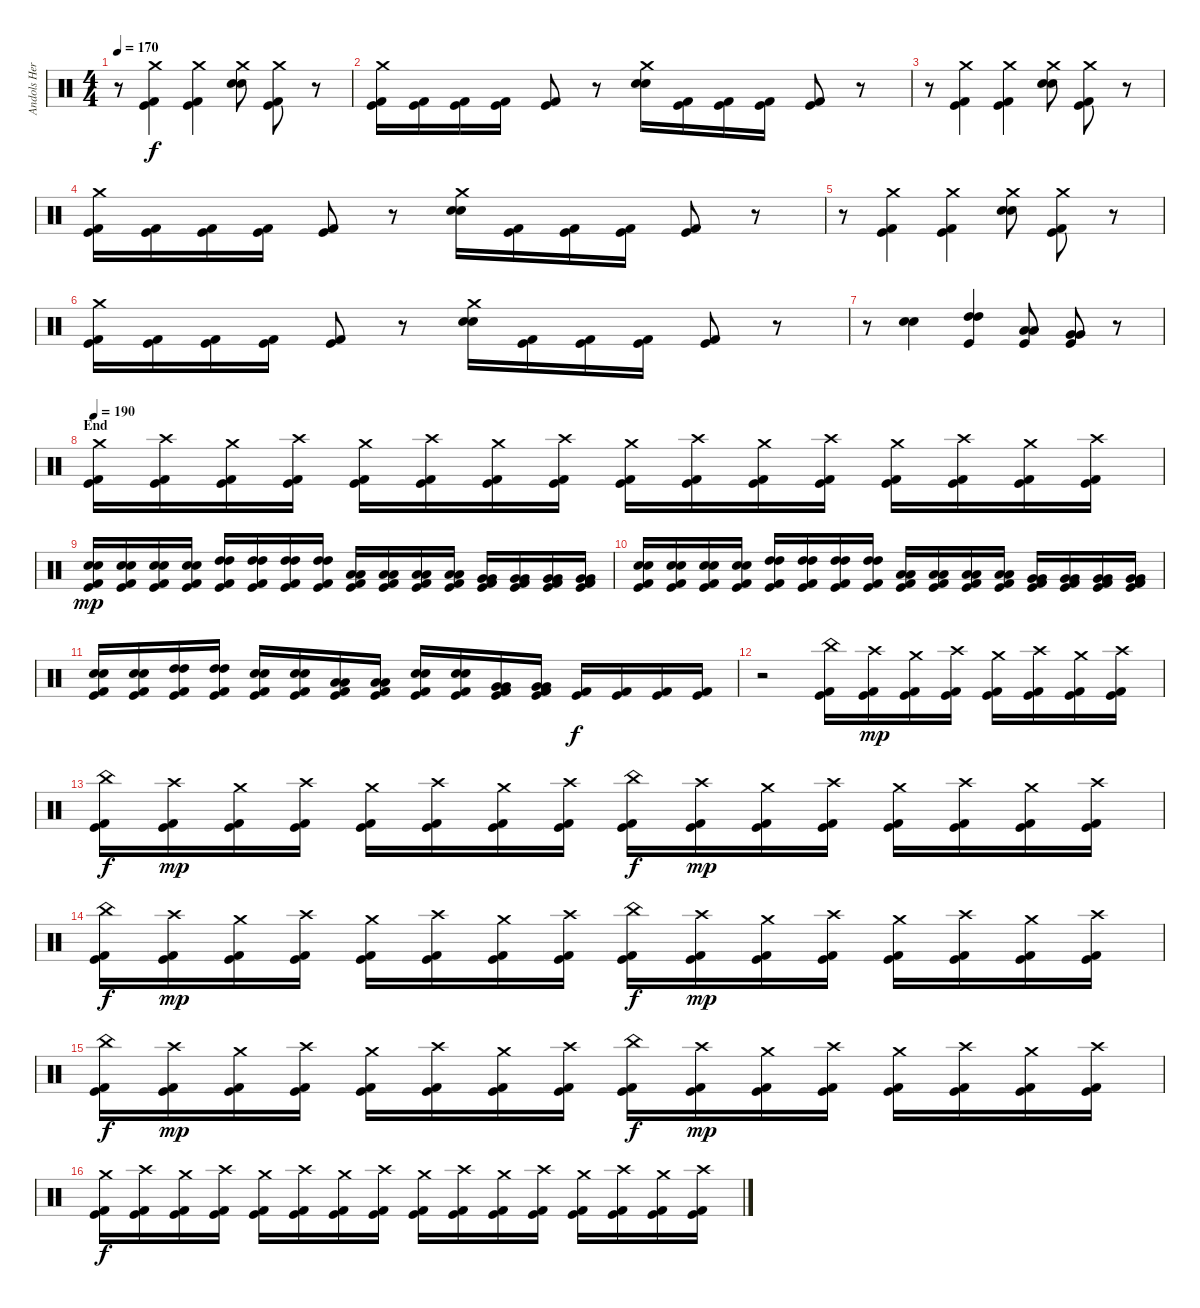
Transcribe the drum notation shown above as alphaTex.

\track ("Andols Herrick" "Andols Her") {instrument percussion}
\staff {score}
\articulation defaults
\ts (4 4)
\tempo 170
\clef neutral
\ks c
r.8{dy f} ("Crash medium (hit)" "Kick (hit) 2" "Kick (hit)").4 ("Crash medium (hit)" "Kick (hit) 2" "Kick (hit)").4 ("Crash medium (hit)" "Electric Snare (hit)" "Snare (hit) 2").8 ("Crash medium (hit)" "Kick (hit) 2" "Kick (hit)").8 r.8 |
("Crash medium (hit)" "Kick (hit) 2" "Kick (hit)").16 ("Kick (hit) 2" "Kick (hit)").16 ("Kick (hit) 2" "Kick (hit)").16 ("Kick (hit) 2" "Kick (hit)").16 ("Kick (hit) 2" "Kick (hit)").8 r.8 ("Crash medium (hit)" "Electric Snare (hit)" "Snare (hit) 2").16 ("Kick (hit) 2" "Kick (hit)").16 ("Kick (hit) 2" "Kick (hit)").16 ("Kick (hit) 2" "Kick (hit)").16 ("Kick (hit) 2" "Kick (hit)").8 r.8 |
r.8 ("Crash medium (hit)" "Kick (hit) 2" "Kick (hit)").4 ("Crash medium (hit)" "Kick (hit) 2" "Kick (hit)").4 ("Crash medium (hit)" "Electric Snare (hit)" "Snare (hit) 2").8 ("Crash medium (hit)" "Kick (hit) 2" "Kick (hit)").8 r.8 |
("Crash medium (hit)" "Kick (hit) 2" "Kick (hit)").16 ("Kick (hit) 2" "Kick (hit)").16 ("Kick (hit) 2" "Kick (hit)").16 ("Kick (hit) 2" "Kick (hit)").16 ("Kick (hit) 2" "Kick (hit)").8 r.8 ("Crash medium (hit)" "Electric Snare (hit)" "Snare (hit) 2").16 ("Kick (hit) 2" "Kick (hit)").16 ("Kick (hit) 2" "Kick (hit)").16 ("Kick (hit) 2" "Kick (hit)").16 ("Kick (hit) 2" "Kick (hit)").8 r.8 |
r.8 ("Crash medium (hit)" "Kick (hit) 2" "Kick (hit)").4 ("Crash medium (hit)" "Kick (hit) 2" "Kick (hit)").4 ("Crash medium (hit)" "Electric Snare (hit)" "Snare (hit) 2").8 ("Crash medium (hit)" "Kick (hit) 2" "Kick (hit)").8 r.8 |
("Crash medium (hit)" "Kick (hit) 2" "Kick (hit)").16 ("Kick (hit) 2" "Kick (hit)").16 ("Kick (hit) 2" "Kick (hit)").16 ("Kick (hit) 2" "Kick (hit)").16 ("Kick (hit) 2" "Kick (hit)").8 r.8 ("Crash medium (hit)" "Electric Snare (hit)" "Snare (hit) 2").16 ("Kick (hit) 2" "Kick (hit)").16 ("Kick (hit) 2" "Kick (hit)").16 ("Kick (hit) 2" "Kick (hit)").16 ("Kick (hit) 2" "Kick (hit)").8 r.8 |
r.8 ("Electric Snare (hit)" "Snare (hit) 2").4 ("High Tom (hit)" "High Tom (hit)" "Kick (hit)").4 ("Low Tom (hit)" "Low Tom (hit)" "Kick (hit)").8 ("Very Low Tom (hit)" "Very Low Tom (hit)" "Kick (hit)").8 r.8 |
\section ("" "End")
\tempo 190
("Crash medium (hit)" "Kick (hit) 2" "Kick (hit)").16 ("Crash high (hit)" "Kick (hit) 2" "Kick (hit)").16 ("Crash medium (hit)" "Kick (hit) 2" "Kick (hit)").16 ("Crash high (hit)" "Kick (hit) 2" "Kick (hit)").16 ("Crash medium (hit)" "Kick (hit) 2" "Kick (hit)").16 ("Crash high (hit)" "Kick (hit) 2" "Kick (hit)").16 ("Crash medium (hit)" "Kick (hit) 2" "Kick (hit)").16 ("Crash high (hit)" "Kick (hit) 2" "Kick (hit)").16 ("Crash medium (hit)" "Kick (hit) 2" "Kick (hit)").16 ("Crash high (hit)" "Kick (hit) 2" "Kick (hit)").16 ("Crash medium (hit)" "Kick (hit) 2" "Kick (hit)").16 ("Crash high (hit)" "Kick (hit) 2" "Kick (hit)").16 ("Crash medium (hit)" "Kick (hit) 2" "Kick (hit)").16 ("Crash high (hit)" "Kick (hit) 2" "Kick (hit)").16 ("Crash medium (hit)" "Kick (hit) 2" "Kick (hit)").16 ("Crash high (hit)" "Kick (hit) 2" "Kick (hit)").16 |
("Electric Snare (hit)" "Snare (hit) 2" "Kick (hit) 2" "Kick (hit)").16{dy mp} ("Electric Snare (hit)" "Snare (hit) 2" "Kick (hit) 2" "Kick (hit)").16 ("Electric Snare (hit)" "Snare (hit) 2" "Kick (hit) 2" "Kick (hit)").16 ("Electric Snare (hit)" "Snare (hit) 2" "Kick (hit) 2" "Kick (hit)").16 ("High Tom (hit)" "High Tom (hit)" "Kick (hit) 2" "Kick (hit)").16 ("High Tom (hit)" "High Tom (hit)" "Kick (hit) 2" "Kick (hit)").16 ("High Tom (hit)" "High Tom (hit)" "Kick (hit) 2" "Kick (hit)").16 ("High Tom (hit)" "High Tom (hit)" "Kick (hit) 2" "Kick (hit)").16 ("Low Tom (hit)" "Low Tom (hit)" "Kick (hit) 2" "Kick (hit)").16 ("Low Tom (hit)" "Low Tom (hit)" "Kick (hit) 2" "Kick (hit)").16 ("Low Tom (hit)" "Low Tom (hit)" "Kick (hit) 2" "Kick (hit)").16 ("Low Tom (hit)" "Low Tom (hit)" "Kick (hit) 2" "Kick (hit)").16 ("Very Low Tom (hit)" "Very Low Tom (hit)" "Kick (hit) 2" "Kick (hit)").16 ("Very Low Tom (hit)" "Very Low Tom (hit)" "Kick (hit) 2" "Kick (hit)").16 ("Very Low Tom (hit)" "Very Low Tom (hit)" "Kick (hit) 2" "Kick (hit)").16 ("Very Low Tom (hit)" "Very Low Tom (hit)" "Kick (hit) 2" "Kick (hit)").16 |
("Electric Snare (hit)" "Snare (hit) 2" "Kick (hit) 2" "Kick (hit)").16 ("Electric Snare (hit)" "Snare (hit) 2" "Kick (hit) 2" "Kick (hit)").16 ("Electric Snare (hit)" "Snare (hit) 2" "Kick (hit) 2" "Kick (hit)").16 ("Electric Snare (hit)" "Snare (hit) 2" "Kick (hit) 2" "Kick (hit)").16 ("High Tom (hit)" "High Tom (hit)" "Kick (hit) 2" "Kick (hit)").16 ("High Tom (hit)" "High Tom (hit)" "Kick (hit) 2" "Kick (hit)").16 ("High Tom (hit)" "High Tom (hit)" "Kick (hit) 2" "Kick (hit)").16 ("High Tom (hit)" "High Tom (hit)" "Kick (hit) 2" "Kick (hit)").16 ("Low Tom (hit)" "Low Tom (hit)" "Kick (hit) 2" "Kick (hit)").16 ("Low Tom (hit)" "Low Tom (hit)" "Kick (hit) 2" "Kick (hit)").16 ("Low Tom (hit)" "Low Tom (hit)" "Kick (hit) 2" "Kick (hit)").16 ("Low Tom (hit)" "Low Tom (hit)" "Kick (hit) 2" "Kick (hit)").16 ("Very Low Tom (hit)" "Very Low Tom (hit)" "Kick (hit) 2" "Kick (hit)").16 ("Very Low Tom (hit)" "Very Low Tom (hit)" "Kick (hit) 2" "Kick (hit)").16 ("Very Low Tom (hit)" "Very Low Tom (hit)" "Kick (hit) 2" "Kick (hit)").16 ("Very Low Tom (hit)" "Very Low Tom (hit)" "Kick (hit) 2" "Kick (hit)").16 |
("Electric Snare (hit)" "Snare (hit) 2" "Kick (hit) 2" "Kick (hit)").16 ("Electric Snare (hit)" "Snare (hit) 2" "Kick (hit) 2" "Kick (hit)").16 ("High Tom (hit)" "High Tom (hit)" "Kick (hit) 2" "Kick (hit)").16 ("High Tom (hit)" "High Tom (hit)" "Kick (hit) 2" "Kick (hit)").16 ("Electric Snare (hit)" "Snare (hit) 2" "Kick (hit) 2" "Kick (hit)").16 ("Electric Snare (hit)" "Snare (hit) 2" "Kick (hit) 2" "Kick (hit)").16 ("Low Tom (hit)" "Low Tom (hit)" "Kick (hit) 2" "Kick (hit)").16 ("Low Tom (hit)" "Low Tom (hit)" "Kick (hit) 2" "Kick (hit)").16 ("Electric Snare (hit)" "Snare (hit) 2" "Kick (hit) 2" "Kick (hit)").16 ("Electric Snare (hit)" "Snare (hit) 2" "Kick (hit) 2" "Kick (hit)").16 ("Very Low Tom (hit)" "Very Low Tom (hit)" "Kick (hit) 2" "Kick (hit)").16 ("Very Low Tom (hit)" "Very Low Tom (hit)" "Kick (hit) 2" "Kick (hit)").16 ("Kick (hit) 2" "Kick (hit)").16{dy f} ("Kick (hit) 2" "Kick (hit)").16 ("Kick (hit) 2" "Kick (hit)").16 ("Kick (hit) 2" "Kick (hit)").16 |
r.2 ("China (hit)" "Kick (hit) 2" "Kick (hit)").16 ("Crash high (hit)" "Kick (hit) 2" "Kick (hit)").16{dy mp} ("Crash medium (hit)" "Kick (hit) 2" "Kick (hit)").16 ("Crash high (hit)" "Kick (hit) 2" "Kick (hit)").16 ("Crash medium (hit)" "Kick (hit) 2" "Kick (hit)").16 ("Crash high (hit)" "Kick (hit) 2" "Kick (hit)").16 ("Crash medium (hit)" "Kick (hit) 2" "Kick (hit)").16 ("Crash high (hit)" "Kick (hit) 2" "Kick (hit)").16 |
("China (hit)" "Kick (hit) 2" "Kick (hit)").16{dy f} ("Crash high (hit)" "Kick (hit) 2" "Kick (hit)").16{dy mp} ("Crash medium (hit)" "Kick (hit) 2" "Kick (hit)").16 ("Crash high (hit)" "Kick (hit) 2" "Kick (hit)").16 ("Crash medium (hit)" "Kick (hit) 2" "Kick (hit)").16 ("Crash high (hit)" "Kick (hit) 2" "Kick (hit)").16 ("Crash medium (hit)" "Kick (hit) 2" "Kick (hit)").16 ("Crash high (hit)" "Kick (hit) 2" "Kick (hit)").16 ("China (hit)" "Kick (hit) 2" "Kick (hit)").16{dy f} ("Crash high (hit)" "Kick (hit) 2" "Kick (hit)").16{dy mp} ("Crash medium (hit)" "Kick (hit) 2" "Kick (hit)").16 ("Crash high (hit)" "Kick (hit) 2" "Kick (hit)").16 ("Crash medium (hit)" "Kick (hit) 2" "Kick (hit)").16 ("Crash high (hit)" "Kick (hit) 2" "Kick (hit)").16 ("Crash medium (hit)" "Kick (hit) 2" "Kick (hit)").16 ("Crash high (hit)" "Kick (hit) 2" "Kick (hit)").16 |
("China (hit)" "Kick (hit) 2" "Kick (hit)").16{dy f} ("Crash high (hit)" "Kick (hit) 2" "Kick (hit)").16{dy mp} ("Crash medium (hit)" "Kick (hit) 2" "Kick (hit)").16 ("Crash high (hit)" "Kick (hit) 2" "Kick (hit)").16 ("Crash medium (hit)" "Kick (hit) 2" "Kick (hit)").16 ("Crash high (hit)" "Kick (hit) 2" "Kick (hit)").16 ("Crash medium (hit)" "Kick (hit) 2" "Kick (hit)").16 ("Crash high (hit)" "Kick (hit) 2" "Kick (hit)").16 ("China (hit)" "Kick (hit) 2" "Kick (hit)").16{dy f} ("Crash high (hit)" "Kick (hit) 2" "Kick (hit)").16{dy mp} ("Crash medium (hit)" "Kick (hit) 2" "Kick (hit)").16 ("Crash high (hit)" "Kick (hit) 2" "Kick (hit)").16 ("Crash medium (hit)" "Kick (hit) 2" "Kick (hit)").16 ("Crash high (hit)" "Kick (hit) 2" "Kick (hit)").16 ("Crash medium (hit)" "Kick (hit) 2" "Kick (hit)").16 ("Crash high (hit)" "Kick (hit) 2" "Kick (hit)").16 |
("China (hit)" "Kick (hit) 2" "Kick (hit)").16{dy f} ("Crash high (hit)" "Kick (hit) 2" "Kick (hit)").16{dy mp} ("Crash medium (hit)" "Kick (hit) 2" "Kick (hit)").16 ("Crash high (hit)" "Kick (hit) 2" "Kick (hit)").16 ("Crash medium (hit)" "Kick (hit) 2" "Kick (hit)").16 ("Crash high (hit)" "Kick (hit) 2" "Kick (hit)").16 ("Crash medium (hit)" "Kick (hit) 2" "Kick (hit)").16 ("Crash high (hit)" "Kick (hit) 2" "Kick (hit)").16 ("China (hit)" "Kick (hit) 2" "Kick (hit)").16{dy f} ("Crash high (hit)" "Kick (hit) 2" "Kick (hit)").16{dy mp} ("Crash medium (hit)" "Kick (hit) 2" "Kick (hit)").16 ("Crash high (hit)" "Kick (hit) 2" "Kick (hit)").16 ("Crash medium (hit)" "Kick (hit) 2" "Kick (hit)").16 ("Crash high (hit)" "Kick (hit) 2" "Kick (hit)").16 ("Crash medium (hit)" "Kick (hit) 2" "Kick (hit)").16 ("Crash high (hit)" "Kick (hit) 2" "Kick (hit)").16 |
("Crash medium (hit)" "Kick (hit) 2" "Kick (hit)").16{dy f} ("Crash high (hit)" "Kick (hit) 2" "Kick (hit)").16 ("Crash medium (hit)" "Kick (hit) 2" "Kick (hit)").16 ("Crash high (hit)" "Kick (hit) 2" "Kick (hit)").16 ("Crash medium (hit)" "Kick (hit) 2" "Kick (hit)").16 ("Crash high (hit)" "Kick (hit) 2" "Kick (hit)").16 ("Crash medium (hit)" "Kick (hit) 2" "Kick (hit)").16 ("Crash high (hit)" "Kick (hit) 2" "Kick (hit)").16 ("Crash medium (hit)" "Kick (hit) 2" "Kick (hit)").16 ("Crash high (hit)" "Kick (hit) 2" "Kick (hit)").16 ("Crash medium (hit)" "Kick (hit) 2" "Kick (hit)").16 ("Crash high (hit)" "Kick (hit) 2" "Kick (hit)").16 ("Crash medium (hit)" "Kick (hit) 2" "Kick (hit)").16 ("Crash high (hit)" "Kick (hit) 2" "Kick (hit)").16 ("Crash medium (hit)" "Kick (hit) 2" "Kick (hit)").16 ("Crash high (hit)" "Kick (hit) 2" "Kick (hit)").16
